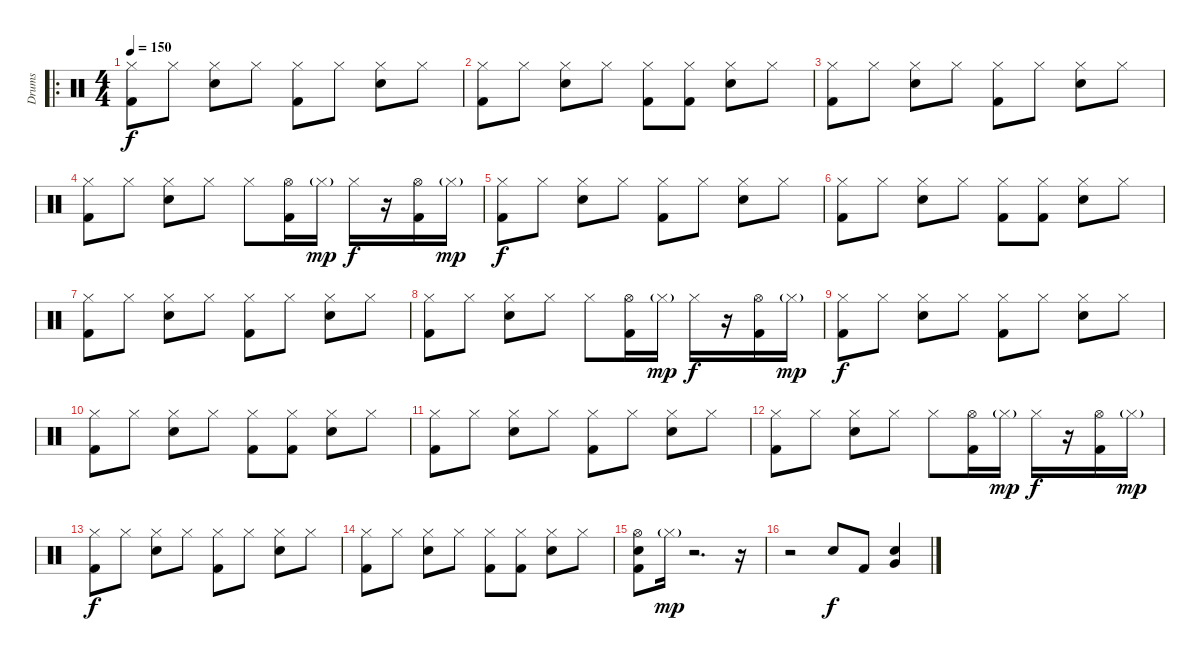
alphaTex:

\track ("Drums" "Drums") {instrument percussion}
\staff {score}
\articulation defaults
\ro
\ts (4 4)
\tempo 150
\clef neutral
\ks c
("Hi-Hat (closed)" "Kick (hit) 2").8{dy f} "Hi-Hat (closed)".8 ("Hi-Hat (closed)" "Electric Snare (hit)").8 "Hi-Hat (closed)".8 ("Hi-Hat (closed)" "Kick (hit) 2").8 "Hi-Hat (closed)".8 ("Hi-Hat (closed)" "Electric Snare (hit)").8 "Hi-Hat (closed)".8 |
("Hi-Hat (closed)" "Kick (hit) 2").8 "Hi-Hat (closed)".8 ("Hi-Hat (closed)" "Electric Snare (hit)").8 "Hi-Hat (closed)".8 ("Hi-Hat (closed)" "Kick (hit) 2").8 ("Hi-Hat (closed)" "Kick (hit) 2").8 ("Hi-Hat (closed)" "Electric Snare (hit)").8 "Hi-Hat (closed)".8 |
("Hi-Hat (closed)" "Kick (hit) 2").8 "Hi-Hat (closed)".8 ("Hi-Hat (closed)" "Electric Snare (hit)").8 "Hi-Hat (closed)".8 ("Hi-Hat (closed)" "Kick (hit) 2").8 "Hi-Hat (closed)".8 ("Hi-Hat (closed)" "Electric Snare (hit)").8 "Hi-Hat (closed)".8 |
("Hi-Hat (closed)" "Kick (hit) 2").8 "Hi-Hat (closed)".8 ("Hi-Hat (closed)" "Electric Snare (hit)").8 "Hi-Hat (closed)".8 "Hi-Hat (closed)".8 ("Hi-Hat (open)" "Kick (hit) 2").16 "Hi-Hat (closed)"{g}.16{dy mp} "Hi-Hat (closed)".16{dy f} r.16 ("Hi-Hat (open)" "Kick (hit) 2").16 "Hi-Hat (closed)"{g}.16{dy mp} |
("Hi-Hat (closed)" "Kick (hit) 2").8{dy f} "Hi-Hat (closed)".8 ("Hi-Hat (closed)" "Electric Snare (hit)").8 "Hi-Hat (closed)".8 ("Hi-Hat (closed)" "Kick (hit) 2").8 "Hi-Hat (closed)".8 ("Hi-Hat (closed)" "Electric Snare (hit)").8 "Hi-Hat (closed)".8 |
("Hi-Hat (closed)" "Kick (hit) 2").8 "Hi-Hat (closed)".8 ("Hi-Hat (closed)" "Electric Snare (hit)").8 "Hi-Hat (closed)".8 ("Hi-Hat (closed)" "Kick (hit) 2").8 ("Hi-Hat (closed)" "Kick (hit) 2").8 ("Hi-Hat (closed)" "Electric Snare (hit)").8 "Hi-Hat (closed)".8 |
("Hi-Hat (closed)" "Kick (hit) 2").8 "Hi-Hat (closed)".8 ("Hi-Hat (closed)" "Electric Snare (hit)").8 "Hi-Hat (closed)".8 ("Hi-Hat (closed)" "Kick (hit) 2").8 "Hi-Hat (closed)".8 ("Hi-Hat (closed)" "Electric Snare (hit)").8 "Hi-Hat (closed)".8 |
("Hi-Hat (closed)" "Kick (hit) 2").8 "Hi-Hat (closed)".8 ("Hi-Hat (closed)" "Electric Snare (hit)").8 "Hi-Hat (closed)".8 "Hi-Hat (closed)".8 ("Hi-Hat (open)" "Kick (hit) 2").16 "Hi-Hat (closed)"{g}.16{dy mp} "Hi-Hat (closed)".16{dy f} r.16 ("Hi-Hat (open)" "Kick (hit) 2").16 "Hi-Hat (closed)"{g}.16{dy mp} |
("Hi-Hat (closed)" "Kick (hit) 2").8{dy f} "Hi-Hat (closed)".8 ("Hi-Hat (closed)" "Electric Snare (hit)").8 "Hi-Hat (closed)".8 ("Hi-Hat (closed)" "Kick (hit) 2").8 "Hi-Hat (closed)".8 ("Hi-Hat (closed)" "Electric Snare (hit)").8 "Hi-Hat (closed)".8 |
("Hi-Hat (closed)" "Kick (hit) 2").8 "Hi-Hat (closed)".8 ("Hi-Hat (closed)" "Electric Snare (hit)").8 "Hi-Hat (closed)".8 ("Hi-Hat (closed)" "Kick (hit) 2").8 ("Hi-Hat (closed)" "Kick (hit) 2").8 ("Hi-Hat (closed)" "Electric Snare (hit)").8 "Hi-Hat (closed)".8 |
("Hi-Hat (closed)" "Kick (hit) 2").8 "Hi-Hat (closed)".8 ("Hi-Hat (closed)" "Electric Snare (hit)").8 "Hi-Hat (closed)".8 ("Hi-Hat (closed)" "Kick (hit) 2").8 "Hi-Hat (closed)".8 ("Hi-Hat (closed)" "Electric Snare (hit)").8 "Hi-Hat (closed)".8 |
("Hi-Hat (closed)" "Kick (hit) 2").8 "Hi-Hat (closed)".8 ("Hi-Hat (closed)" "Electric Snare (hit)").8 "Hi-Hat (closed)".8 "Hi-Hat (closed)".8 ("Hi-Hat (open)" "Kick (hit) 2").16 "Hi-Hat (closed)"{g}.16{dy mp} "Hi-Hat (closed)".16{dy f} r.16 ("Hi-Hat (open)" "Kick (hit) 2").16 "Hi-Hat (closed)"{g}.16{dy mp} |
("Hi-Hat (closed)" "Kick (hit) 2").8{dy f} "Hi-Hat (closed)".8 ("Hi-Hat (closed)" "Electric Snare (hit)").8 "Hi-Hat (closed)".8 ("Hi-Hat (closed)" "Kick (hit) 2").8 "Hi-Hat (closed)".8 ("Hi-Hat (closed)" "Electric Snare (hit)").8 "Hi-Hat (closed)".8 |
("Hi-Hat (closed)" "Kick (hit) 2").8 "Hi-Hat (closed)".8 ("Hi-Hat (closed)" "Electric Snare (hit)").8 "Hi-Hat (closed)".8 ("Hi-Hat (closed)" "Kick (hit) 2").8 ("Hi-Hat (closed)" "Kick (hit) 2").8 ("Hi-Hat (closed)" "Electric Snare (hit)").8 "Hi-Hat (closed)".8 |
("Hi-Hat (open)" "Electric Snare (hit)" "Kick (hit) 2").8 "Hi-Hat (closed)"{g}.16{dy mp} r.2{d} r.16 |
r.2 "Electric Snare (hit)".8{dy f} "Kick (hit) 2".8 ("Very Low Tom (hit)" "Electric Snare (hit)").4
